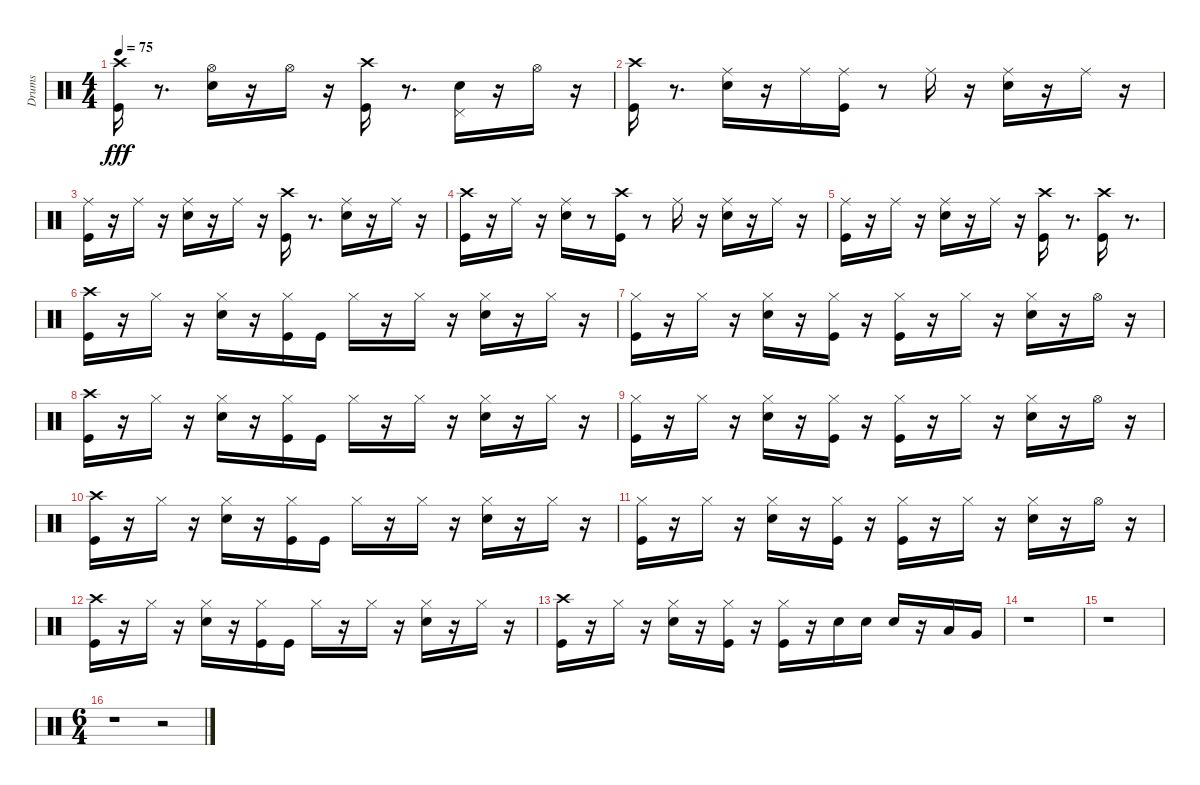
\track ("Drums" "Drums") {instrument percussion}
\staff {score}
\articulation defaults
\ts (4 4)
\tempo 75
\clef neutral
\ks c
("Crash high (hit)" "Kick (hit)").16{dy fff} r.8{d} ("Snare (hit) 2" "Hi-Hat (open)").16 r.16 "Hi-Hat (open)".16 r.16 ("Crash high (hit)" "Kick (hit)").16 r.8{d} ("Pedal Hi-Hat (hit)" "Snare (hit) 2").16 r.16 "Hi-Hat (open)".16 r.16 |
("Crash high (hit)" "Kick (hit)").16 r.8{d} ("Ride (middle)" "Snare (hit) 2").16 r.16 "Ride (middle)".16 ("Ride (middle)" "Kick (hit)").16 r.8 "Ride (middle)".16 r.16 ("Snare (hit) 2" "Ride (middle)").16 r.16 "Ride (middle)".16 r.16 |
("Kick (hit)" "Ride (middle)").16 r.16 "Ride (middle)".16 r.16 ("Snare (hit) 2" "Ride (middle)").16 r.16 "Ride (middle)".16 r.16 ("Kick (hit)" "Crash high (hit)").16 r.8{d} ("Snare (hit) 2" "Ride (middle)").16 r.16 "Ride (middle)".16 r.16 |
("Kick (hit)" "Crash high (hit)").16 r.16 "Ride (middle)".16 r.16 ("Snare (hit) 2" "Ride (middle)").16 r.8 ("Crash high (hit)" "Kick (hit)").16 r.8 "Ride (middle)".16 r.16 ("Snare (hit) 2" "Ride (middle)").16 r.16 "Ride (middle)".16 r.16 |
("Ride (middle)" "Kick (hit)").16 r.16 "Ride (middle)".16 r.16 ("Ride (middle)" "Snare (hit) 2").16 r.16 "Ride (middle)".16 r.16 ("Crash high (hit)" "Kick (hit)").16 r.8{d} ("Crash high (hit)" "Kick (hit)").16 r.8{d} |
("Crash high (hit)" "Kick (hit)").16 r.16 "Hi-Hat (closed)".16 r.16 ("Snare (hit) 2" "Hi-Hat (closed)").16 r.16 ("Kick (hit)" "Hi-Hat (closed)").16 "Kick (hit)".16 "Hi-Hat (closed)".16 r.16 "Hi-Hat (closed)".16 r.16 ("Snare (hit) 2" "Hi-Hat (closed)").16 r.16 "Hi-Hat (closed)".16 r.16 |
("Hi-Hat (closed)" "Kick (hit)").16 r.16 "Hi-Hat (closed)".16 r.16 ("Hi-Hat (closed)" "Snare (hit) 2").16 r.16 ("Hi-Hat (closed)" "Kick (hit)").16 r.16 ("Kick (hit)" "Hi-Hat (closed)").16 r.16 "Hi-Hat (closed)".16 r.16 ("Hi-Hat (closed)" "Snare (hit) 2").16 r.16 "Hi-Hat (open)".16 r.16 |
("Kick (hit)" "Crash high (hit)").16 r.16 "Hi-Hat (closed)".16 r.16 ("Hi-Hat (closed)" "Snare (hit) 2").16 r.16 ("Hi-Hat (closed)" "Kick (hit)").16 "Kick (hit)".16 "Hi-Hat (closed)".16 r.16 "Hi-Hat (closed)".16 r.16 ("Hi-Hat (closed)" "Snare (hit) 2").16 r.16 "Hi-Hat (closed)".16 r.16 |
("Kick (hit)" "Hi-Hat (closed)").16 r.16 "Hi-Hat (closed)".16 r.16 ("Snare (hit) 2" "Hi-Hat (closed)").16 r.16 ("Kick (hit)" "Hi-Hat (closed)").16 r.16 ("Hi-Hat (closed)" "Kick (hit)").16 r.16 "Hi-Hat (closed)".16 r.16 ("Snare (hit) 2" "Hi-Hat (closed)").16 r.16 "Hi-Hat (open)".16 r.16 |
("Crash high (hit)" "Kick (hit)").16 r.16 "Hi-Hat (closed)".16 r.16 ("Snare (hit) 2" "Hi-Hat (closed)").16 r.16 ("Kick (hit)" "Hi-Hat (closed)").16 "Kick (hit)".16 "Hi-Hat (closed)".16 r.16 "Hi-Hat (closed)".16 r.16 ("Snare (hit) 2" "Hi-Hat (closed)").16 r.16 "Hi-Hat (closed)".16 r.16 |
("Hi-Hat (closed)" "Kick (hit)").16 r.16 "Hi-Hat (closed)".16 r.16 ("Hi-Hat (closed)" "Snare (hit) 2").16 r.16 ("Hi-Hat (closed)" "Kick (hit)").16 r.16 ("Kick (hit)" "Hi-Hat (closed)").16 r.16 "Hi-Hat (closed)".16 r.16 ("Hi-Hat (closed)" "Snare (hit) 2").16 r.16 "Hi-Hat (open)".16 r.16 |
("Crash high (hit)" "Kick (hit)").16 r.16 "Hi-Hat (closed)".16 r.16 ("Snare (hit) 2" "Hi-Hat (closed)").16 r.16 ("Kick (hit)" "Hi-Hat (closed)").16 "Kick (hit)".16 "Hi-Hat (closed)".16 r.16 "Hi-Hat (closed)".16 r.16 ("Snare (hit) 2" "Hi-Hat (closed)").16 r.16 "Hi-Hat (closed)".16 r.16 |
("Crash high (hit)" "Kick (hit)").16 r.16 "Hi-Hat (closed)".16 r.16 ("Hi-Hat (closed)" "Snare (hit) 2").16 r.16 ("Hi-Hat (closed)" "Kick (hit)").16 r.16 ("Kick (hit)" "Hi-Hat (closed)").16 r.16 "Snare (hit) 2".16 "Snare (hit) 2".16 "Snare (hit) 2".16 r.16 "Low Tom (hit)".16 "Very Low Tom (hit)".16 |
r.1 |
r.1 |
\ts (6 4)
r.1 r.2
